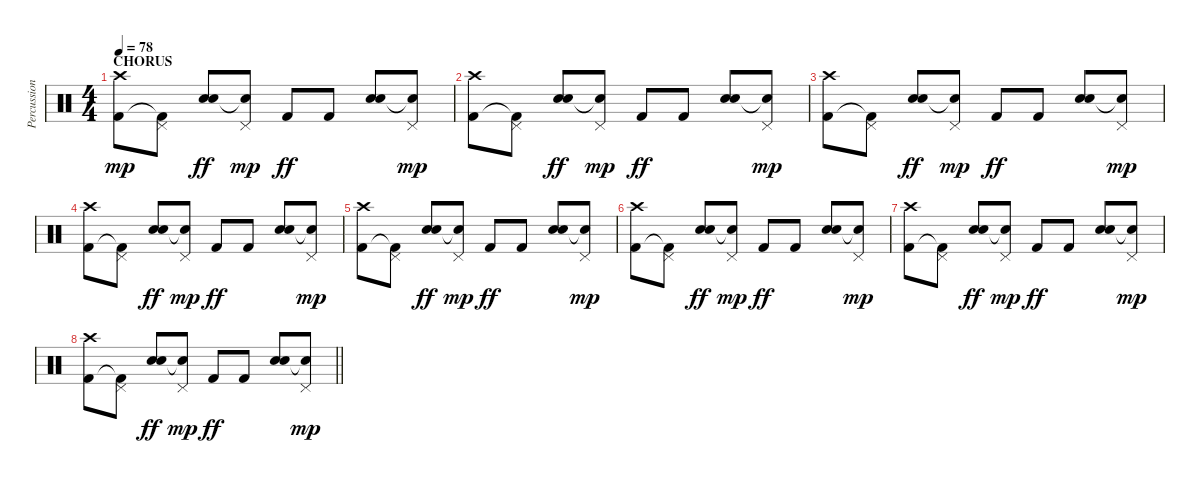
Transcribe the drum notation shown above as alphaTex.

\track ("Percussion" "Percussion") {instrument percussion}
\staff {score}
\articulation defaults
\ts (4 4)
\section ("" "CHORUS")
\tempo 78
\clef neutral
\ks c
("Kick (hit) 2" "Crash high (hit)").8{dy mp} ("Kick (hit) 2"{t} "Pedal Hi-Hat (hit)").8 ("Snare (hit) 2" "Electric Snare (hit)").8{dy ff} ("Snare (hit)"{t} "Pedal Hi-Hat (hit)").8{dy mp} "Kick (hit) 2".8{dy ff} "Kick (hit) 2".8 ("Snare (hit) 2" "Electric Snare (hit)").8 ("Snare (hit)"{t} "Pedal Hi-Hat (hit)").8{dy mp} |
("Kick (hit) 2" "Crash high (hit)").8 ("Kick (hit) 2"{t} "Pedal Hi-Hat (hit)").8 ("Snare (hit) 2" "Electric Snare (hit)").8{dy ff} ("Snare (hit)"{t} "Pedal Hi-Hat (hit)").8{dy mp} "Kick (hit) 2".8{dy ff} "Kick (hit) 2".8 ("Snare (hit) 2" "Electric Snare (hit)").8 ("Snare (hit)"{t} "Pedal Hi-Hat (hit)").8{dy mp} |
("Kick (hit) 2" "Crash high (hit)").8 ("Kick (hit) 2"{t} "Pedal Hi-Hat (hit)").8 ("Snare (hit) 2" "Electric Snare (hit)").8{dy ff} ("Snare (hit)"{t} "Pedal Hi-Hat (hit)").8{dy mp} "Kick (hit) 2".8{dy ff} "Kick (hit) 2".8 ("Snare (hit) 2" "Electric Snare (hit)").8 ("Snare (hit)"{t} "Pedal Hi-Hat (hit)").8{dy mp} |
("Kick (hit) 2" "Crash high (hit)").8 ("Kick (hit) 2"{t} "Pedal Hi-Hat (hit)").8 ("Snare (hit) 2" "Electric Snare (hit)").8{dy ff} ("Snare (hit)"{t} "Pedal Hi-Hat (hit)").8{dy mp} "Kick (hit) 2".8{dy ff} "Kick (hit) 2".8 ("Snare (hit) 2" "Electric Snare (hit)").8 ("Snare (hit)"{t} "Pedal Hi-Hat (hit)").8{dy mp} |
("Kick (hit) 2" "Crash high (hit)").8 ("Kick (hit) 2"{t} "Pedal Hi-Hat (hit)").8 ("Snare (hit) 2" "Electric Snare (hit)").8{dy ff} ("Snare (hit)"{t} "Pedal Hi-Hat (hit)").8{dy mp} "Kick (hit) 2".8{dy ff} "Kick (hit) 2".8 ("Snare (hit) 2" "Electric Snare (hit)").8 ("Snare (hit)"{t} "Pedal Hi-Hat (hit)").8{dy mp} |
("Kick (hit) 2" "Crash high (hit)").8 ("Kick (hit) 2"{t} "Pedal Hi-Hat (hit)").8 ("Snare (hit) 2" "Electric Snare (hit)").8{dy ff} ("Snare (hit)"{t} "Pedal Hi-Hat (hit)").8{dy mp} "Kick (hit) 2".8{dy ff} "Kick (hit) 2".8 ("Snare (hit) 2" "Electric Snare (hit)").8 ("Snare (hit)"{t} "Pedal Hi-Hat (hit)").8{dy mp} |
("Kick (hit) 2" "Crash high (hit)").8 ("Kick (hit) 2"{t} "Pedal Hi-Hat (hit)").8 ("Snare (hit) 2" "Electric Snare (hit)").8{dy ff} ("Snare (hit)"{t} "Pedal Hi-Hat (hit)").8{dy mp} "Kick (hit) 2".8{dy ff} "Kick (hit) 2".8 ("Snare (hit) 2" "Electric Snare (hit)").8 ("Snare (hit)"{t} "Pedal Hi-Hat (hit)").8{dy mp} |
\barLineRight lightlight
("Kick (hit) 2" "Crash high (hit)").8 ("Kick (hit) 2"{t} "Pedal Hi-Hat (hit)").8 ("Snare (hit) 2" "Electric Snare (hit)").8{dy ff} ("Snare (hit)"{t} "Pedal Hi-Hat (hit)").8{dy mp} "Kick (hit) 2".8{dy ff} "Kick (hit) 2".8 ("Snare (hit) 2" "Electric Snare (hit)").8 ("Snare (hit)"{t} "Pedal Hi-Hat (hit)").8{dy mp}
